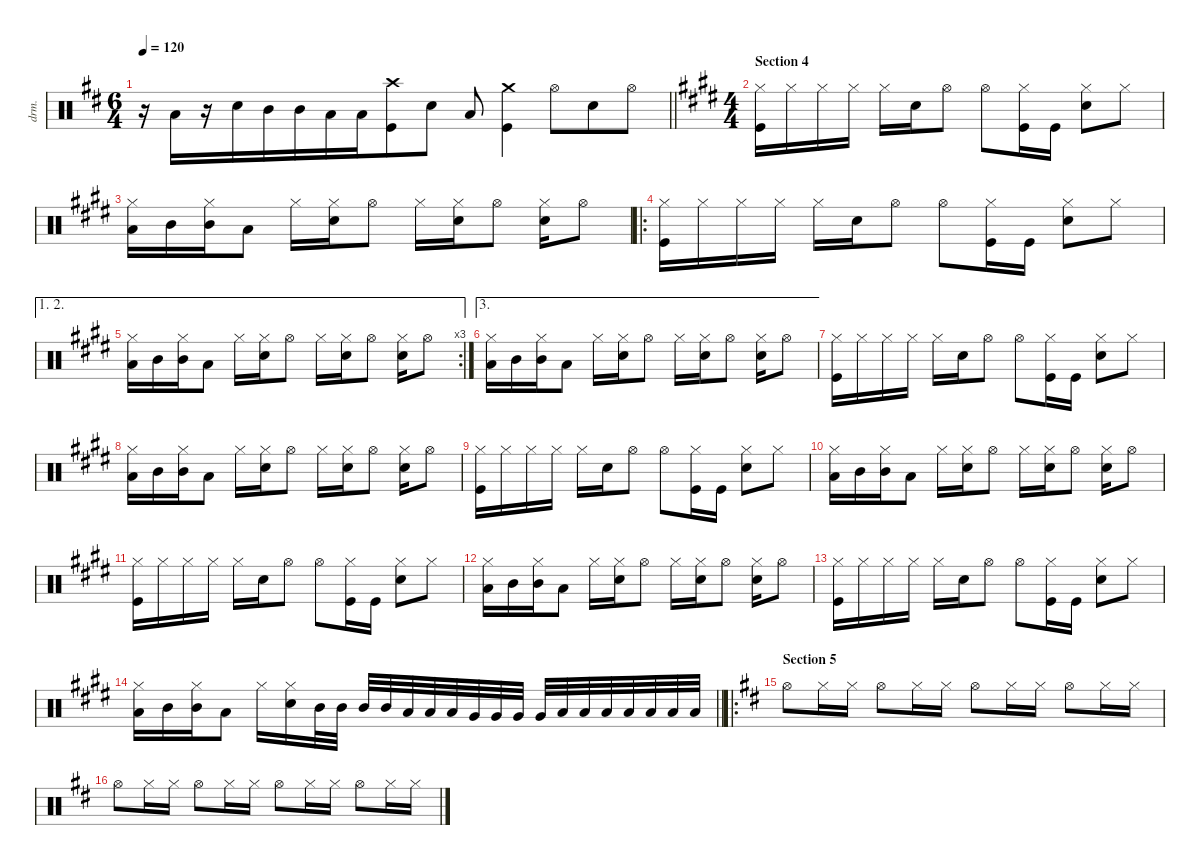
\defaultSystemsLayout 4
\hideDynamics
\bracketExtendMode nobrackets
\otherSystemsTrackNameOrientation horizontal
\track ("Drums" "drm.") {instrument percussion}
\staff {score}
\articulation defaults
\ts (6 4)
\beaming (8 6 6)
\tempo 120
\clef neutral
\barLineRight lightlight
\ks d
r.16{dy f} "Low Tom (hit)"{acc forcenatural}.16 r.16 "Snare (hit) 2"{acc forcenatural}.16 "Mid Tom (hit)"{acc forcenatural}.16 "Mid Tom (hit)"{acc forcenatural}.16 "Low Tom (hit)"{acc forcenatural}.16 "Low Tom (hit)"{acc forcenatural}.16 ("Crash high (hit)"{acc forcenatural} "Kick (hit)"{acc forcenatural}).8 "Snare (hit) 2"{acc forcenatural}.8 "Low Tom (hit)"{acc forcenatural}.8 ("Crash medium (hit)"{acc forcenatural} "Kick (hit)"{acc forcenatural}).4 "Hi-Hat (open)"{acc forcenatural}.8 "Snare (hit) 2"{acc forcenatural}.8 "Hi-Hat (open)"{acc forcenatural}.8 |
\ts (4 4)
\beaming (8 2 2 2 2)
\section ("" "Section 4")
\ks e
("Hi-Hat (closed)"{acc forcenatural} "Kick (hit)"{acc forcenatural}).16 "Hi-Hat (closed)"{acc forcenatural}.16 "Hi-Hat (closed)"{acc forcenatural}.16 "Hi-Hat (closed)"{acc forcenatural}.16 "Hi-Hat (closed)"{acc forcenatural}.16 "Snare (hit) 2"{acc forcenatural}.16 "Hi-Hat (open)"{acc forcenatural}.8 "Hi-Hat (open)"{acc forcenatural}.8 ("Hi-Hat (closed)"{acc forcenatural} "Kick (hit)"{acc forcenatural}).16 "Kick (hit)"{acc forcenatural}.16 ("Hi-Hat (closed)"{acc forcenatural} "Snare (hit) 2"{acc forcenatural}).8 "Hi-Hat (closed)"{acc forcenatural}.8 |
("Hi-Hat (closed)"{acc forcenatural} "Low Tom (hit)"{acc forcenatural}).16 "Mid Tom (hit)"{acc forcenatural}.16 ("Hi-Hat (closed)"{acc forcenatural} "Mid Tom (hit)"{acc forcenatural}).16 "Low Tom (hit)"{acc forcenatural}.8 "Hi-Hat (closed)"{acc forcenatural}.16 ("Hi-Hat (closed)"{acc forcenatural} "Snare (hit) 2"{acc forcenatural}).16 "Hi-Hat (open)"{acc forcenatural}.8 "Hi-Hat (closed)"{acc forcenatural}.16 ("Hi-Hat (closed)"{acc forcenatural} "Snare (hit) 2"{acc forcenatural}).16 "Hi-Hat (open)"{acc forcenatural}.8 ("Hi-Hat (closed)"{acc forcenatural} "Snare (hit) 2"{acc forcenatural}).16 "Hi-Hat (open)"{acc forcenatural}.8 |
\ro
("Hi-Hat (closed)"{acc forcenatural} "Kick (hit)"{acc forcenatural}).16 "Hi-Hat (closed)"{acc forcenatural}.16 "Hi-Hat (closed)"{acc forcenatural}.16 "Hi-Hat (closed)"{acc forcenatural}.16 "Hi-Hat (closed)"{acc forcenatural}.16 "Snare (hit) 2"{acc forcenatural}.16 "Hi-Hat (open)"{acc forcenatural}.8 "Hi-Hat (open)"{acc forcenatural}.8 ("Hi-Hat (closed)"{acc forcenatural} "Kick (hit)"{acc forcenatural}).16 "Kick (hit)"{acc forcenatural}.16 ("Hi-Hat (closed)"{acc forcenatural} "Snare (hit) 2"{acc forcenatural}).8 "Hi-Hat (closed)"{acc forcenatural}.8 |
\ae (1 2)
\rc 3
("Hi-Hat (closed)"{acc forcenatural} "Low Tom (hit)"{acc forcenatural}).16 "Mid Tom (hit)"{acc forcenatural}.16 ("Hi-Hat (closed)"{acc forcenatural} "Mid Tom (hit)"{acc forcenatural}).16 "Low Tom (hit)"{acc forcenatural}.8 "Hi-Hat (closed)"{acc forcenatural}.16 ("Hi-Hat (closed)"{acc forcenatural} "Snare (hit) 2"{acc forcenatural}).16 "Hi-Hat (open)"{acc forcenatural}.8 "Hi-Hat (closed)"{acc forcenatural}.16 ("Hi-Hat (closed)"{acc forcenatural} "Snare (hit) 2"{acc forcenatural}).16 "Hi-Hat (open)"{acc forcenatural}.8 ("Hi-Hat (closed)"{acc forcenatural} "Snare (hit) 2"{acc forcenatural}).16 "Hi-Hat (open)"{acc forcenatural}.8 |
\ae 3
("Hi-Hat (closed)"{acc forcenatural} "Low Tom (hit)"{acc forcenatural}).16 "Mid Tom (hit)"{acc forcenatural}.16 ("Hi-Hat (closed)"{acc forcenatural} "Mid Tom (hit)"{acc forcenatural}).16 "Low Tom (hit)"{acc forcenatural}.8 "Hi-Hat (closed)"{acc forcenatural}.16 ("Hi-Hat (closed)"{acc forcenatural} "Snare (hit) 2"{acc forcenatural}).16 "Hi-Hat (open)"{acc forcenatural}.8 "Hi-Hat (closed)"{acc forcenatural}.16 ("Hi-Hat (closed)"{acc forcenatural} "Snare (hit) 2"{acc forcenatural}).16 "Hi-Hat (open)"{acc forcenatural}.8 ("Hi-Hat (closed)"{acc forcenatural} "Snare (hit) 2"{acc forcenatural}).16 "Hi-Hat (open)"{acc forcenatural}.8 |
("Hi-Hat (closed)"{acc forcenatural} "Kick (hit)"{acc forcenatural}).16 "Hi-Hat (closed)"{acc forcenatural}.16 "Hi-Hat (closed)"{acc forcenatural}.16 "Hi-Hat (closed)"{acc forcenatural}.16 "Hi-Hat (closed)"{acc forcenatural}.16 "Snare (hit) 2"{acc forcenatural}.16 "Hi-Hat (open)"{acc forcenatural}.8 "Hi-Hat (open)"{acc forcenatural}.8 ("Hi-Hat (closed)"{acc forcenatural} "Kick (hit)"{acc forcenatural}).16 "Kick (hit)"{acc forcenatural}.16 ("Hi-Hat (closed)"{acc forcenatural} "Snare (hit) 2"{acc forcenatural}).8 "Hi-Hat (closed)"{acc forcenatural}.8 |
("Hi-Hat (closed)"{acc forcenatural} "Low Tom (hit)"{acc forcenatural}).16 "Mid Tom (hit)"{acc forcenatural}.16 ("Hi-Hat (closed)"{acc forcenatural} "Mid Tom (hit)"{acc forcenatural}).16 "Low Tom (hit)"{acc forcenatural}.8 "Hi-Hat (closed)"{acc forcenatural}.16 ("Hi-Hat (closed)"{acc forcenatural} "Snare (hit) 2"{acc forcenatural}).16 "Hi-Hat (open)"{acc forcenatural}.8 "Hi-Hat (closed)"{acc forcenatural}.16 ("Hi-Hat (closed)"{acc forcenatural} "Snare (hit) 2"{acc forcenatural}).16 "Hi-Hat (open)"{acc forcenatural}.8 ("Hi-Hat (closed)"{acc forcenatural} "Snare (hit) 2"{acc forcenatural}).16 "Hi-Hat (open)"{acc forcenatural}.8 |
("Hi-Hat (closed)"{acc forcenatural} "Kick (hit)"{acc forcenatural}).16 "Hi-Hat (closed)"{acc forcenatural}.16 "Hi-Hat (closed)"{acc forcenatural}.16 "Hi-Hat (closed)"{acc forcenatural}.16 "Hi-Hat (closed)"{acc forcenatural}.16 "Snare (hit) 2"{acc forcenatural}.16 "Hi-Hat (open)"{acc forcenatural}.8 "Hi-Hat (open)"{acc forcenatural}.8 ("Hi-Hat (closed)"{acc forcenatural} "Kick (hit)"{acc forcenatural}).16 "Kick (hit)"{acc forcenatural}.16 ("Hi-Hat (closed)"{acc forcenatural} "Snare (hit) 2"{acc forcenatural}).8 "Hi-Hat (closed)"{acc forcenatural}.8 |
("Hi-Hat (closed)"{acc forcenatural} "Low Tom (hit)"{acc forcenatural}).16 "Mid Tom (hit)"{acc forcenatural}.16 ("Hi-Hat (closed)"{acc forcenatural} "Mid Tom (hit)"{acc forcenatural}).16 "Low Tom (hit)"{acc forcenatural}.8 "Hi-Hat (closed)"{acc forcenatural}.16 ("Hi-Hat (closed)"{acc forcenatural} "Snare (hit) 2"{acc forcenatural}).16 "Hi-Hat (open)"{acc forcenatural}.8 "Hi-Hat (closed)"{acc forcenatural}.16 ("Hi-Hat (closed)"{acc forcenatural} "Snare (hit) 2"{acc forcenatural}).16 "Hi-Hat (open)"{acc forcenatural}.8 ("Hi-Hat (closed)"{acc forcenatural} "Snare (hit) 2"{acc forcenatural}).16 "Hi-Hat (open)"{acc forcenatural}.8 |
("Hi-Hat (closed)"{acc forcenatural} "Kick (hit)"{acc forcenatural}).16 "Hi-Hat (closed)"{acc forcenatural}.16 "Hi-Hat (closed)"{acc forcenatural}.16 "Hi-Hat (closed)"{acc forcenatural}.16 "Hi-Hat (closed)"{acc forcenatural}.16 "Snare (hit) 2"{acc forcenatural}.16 "Hi-Hat (open)"{acc forcenatural}.8 "Hi-Hat (open)"{acc forcenatural}.8 ("Hi-Hat (closed)"{acc forcenatural} "Kick (hit)"{acc forcenatural}).16 "Kick (hit)"{acc forcenatural}.16 ("Hi-Hat (closed)"{acc forcenatural} "Snare (hit) 2"{acc forcenatural}).8 "Hi-Hat (closed)"{acc forcenatural}.8 |
("Hi-Hat (closed)"{acc forcenatural} "Low Tom (hit)"{acc forcenatural}).16 "Mid Tom (hit)"{acc forcenatural}.16 ("Hi-Hat (closed)"{acc forcenatural} "Mid Tom (hit)"{acc forcenatural}).16 "Low Tom (hit)"{acc forcenatural}.8 "Hi-Hat (closed)"{acc forcenatural}.16 ("Hi-Hat (closed)"{acc forcenatural} "Snare (hit) 2"{acc forcenatural}).16 "Hi-Hat (open)"{acc forcenatural}.8 "Hi-Hat (closed)"{acc forcenatural}.16 ("Hi-Hat (closed)"{acc forcenatural} "Snare (hit) 2"{acc forcenatural}).16 "Hi-Hat (open)"{acc forcenatural}.8 ("Hi-Hat (closed)"{acc forcenatural} "Snare (hit) 2"{acc forcenatural}).16 "Hi-Hat (open)"{acc forcenatural}.8 |
("Hi-Hat (closed)"{acc forcenatural} "Kick (hit)"{acc forcenatural}).16 "Hi-Hat (closed)"{acc forcenatural}.16 "Hi-Hat (closed)"{acc forcenatural}.16 "Hi-Hat (closed)"{acc forcenatural}.16 "Hi-Hat (closed)"{acc forcenatural}.16 "Snare (hit) 2"{acc forcenatural}.16 "Hi-Hat (open)"{acc forcenatural}.8 "Hi-Hat (open)"{acc forcenatural}.8 ("Hi-Hat (closed)"{acc forcenatural} "Kick (hit)"{acc forcenatural}).16 "Kick (hit)"{acc forcenatural}.16 ("Hi-Hat (closed)"{acc forcenatural} "Snare (hit) 2"{acc forcenatural}).8 "Hi-Hat (closed)"{acc forcenatural}.8 |
\barLineRight lightlight
("Hi-Hat (closed)"{acc forcenatural} "Low Tom (hit)"{acc forcenatural}).16 "Mid Tom (hit)"{acc forcenatural}.16 ("Hi-Hat (closed)"{acc forcenatural} "Mid Tom (hit)"{acc forcenatural}).16 "Low Tom (hit)"{acc forcenatural}.8 "Hi-Hat (closed)"{acc forcenatural}.16 ("Hi-Hat (closed)"{acc forcenatural} "Snare (hit) 2"{acc forcenatural}).16 "Mid Tom (hit)"{acc forcenatural}.32 "Mid Tom (hit)"{acc forcenatural}.32 "Mid Tom (hit)"{acc forcenatural}.32 "Mid Tom (hit)"{acc forcenatural}.32 "Low Tom (hit)"{acc forcenatural}.32 "Low Tom (hit)"{acc forcenatural}.32 "Low Tom (hit)"{acc forcenatural}.32 "Very Low Tom (hit)"{acc forcenatural}.32 "Very Low Tom (hit)"{acc forcenatural}.32 "Very Low Tom (hit)"{acc forcenatural}.32 "Very Low Tom (hit)"{acc forcenatural}.32 "Low Floor Tom (hit)"{acc forcenatural}.32 "Low Floor Tom (hit)"{acc forcenatural}.32 "Low Floor Tom (hit)"{acc forcenatural}.32 "Low Floor Tom (hit)"{acc forcenatural}.32 "Low Floor Tom (hit)"{acc forcenatural}.32 "Low Floor Tom (hit)"{acc forcenatural}.32 "Low Floor Tom (hit)"{acc forcenatural}.32 |
\ro
\section ("" "Section 5")
\ks d "Hi-Hat (open)"{acc forcenatural}.8 "Hi-Hat (closed)"{acc forcenatural}.16 "Hi-Hat (closed)"{acc forcenatural}.16 "Hi-Hat (open)"{acc forcenatural}.8 "Hi-Hat (closed)"{acc forcenatural}.16 "Hi-Hat (closed)"{acc forcenatural}.16 "Hi-Hat (open)"{acc forcenatural}.8 "Hi-Hat (closed)"{acc forcenatural}.16 "Hi-Hat (closed)"{acc forcenatural}.16 "Hi-Hat (open)"{acc forcenatural}.8 "Hi-Hat (closed)"{acc forcenatural}.16 "Hi-Hat (closed)"{acc forcenatural}.16
|
"Hi-Hat (open)"{acc forcenatural}.8 "Hi-Hat (closed)"{acc forcenatural}.16 "Hi-Hat (closed)"{acc forcenatural}.16 "Hi-Hat (open)"{acc forcenatural}.8 "Hi-Hat (closed)"{acc forcenatural}.16 "Hi-Hat (closed)"{acc forcenatural}.16 "Hi-Hat (open)"{acc forcenatural}.8 "Hi-Hat (closed)"{acc forcenatural}.16 "Hi-Hat (closed)"{acc forcenatural}.16 "Hi-Hat (open)"{acc forcenatural}.8 "Hi-Hat (closed)"{acc forcenatural}.16 "Hi-Hat (closed)"{acc forcenatural}.16
